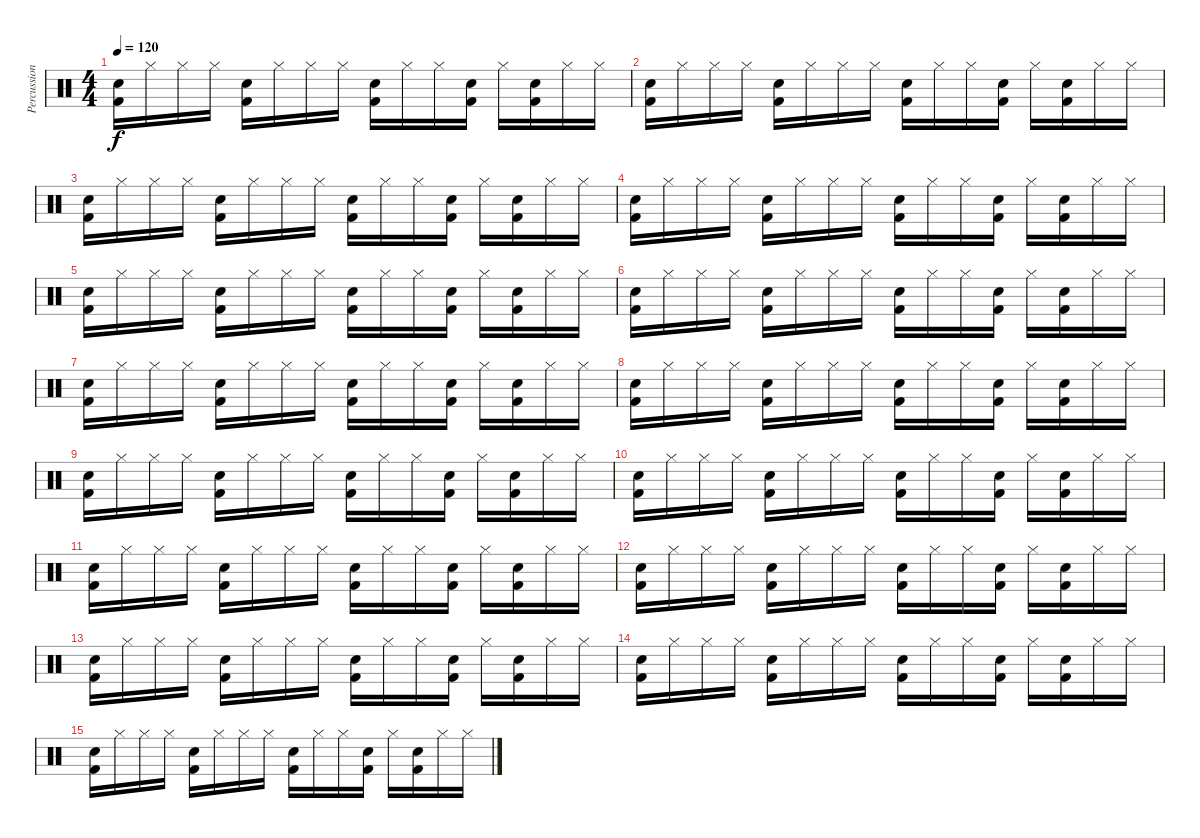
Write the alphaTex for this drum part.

\track ("Percussion" "Percussion") {instrument percussion}
\staff {score}
\articulation defaults
\ts (4 4)
\tempo 120
\clef neutral
\ks c
("Electric Snare (hit)" "Kick (hit) 2").16{dy f} "Hi-Hat (closed)".16 "Hi-Hat (closed)".16 "Hi-Hat (closed)".16 ("Electric Snare (hit)" "Kick (hit) 2").16 "Hi-Hat (closed)".16 "Hi-Hat (closed)".16 "Hi-Hat (closed)".16 ("Electric Snare (hit)" "Kick (hit) 2").16 "Hi-Hat (closed)".16 "Hi-Hat (closed)".16 ("Electric Snare (hit)" "Kick (hit) 2").16 "Hi-Hat (closed)".16 ("Electric Snare (hit)" "Kick (hit) 2").16 "Hi-Hat (closed)".16 "Hi-Hat (closed)".16 |
("Electric Snare (hit)" "Kick (hit) 2").16 "Hi-Hat (closed)".16 "Hi-Hat (closed)".16 "Hi-Hat (closed)".16 ("Electric Snare (hit)" "Kick (hit) 2").16 "Hi-Hat (closed)".16 "Hi-Hat (closed)".16 "Hi-Hat (closed)".16 ("Electric Snare (hit)" "Kick (hit) 2").16 "Hi-Hat (closed)".16 "Hi-Hat (closed)".16 ("Electric Snare (hit)" "Kick (hit) 2").16 "Hi-Hat (closed)".16 ("Electric Snare (hit)" "Kick (hit) 2").16 "Hi-Hat (closed)".16 "Hi-Hat (closed)".16 |
("Electric Snare (hit)" "Kick (hit) 2").16 "Hi-Hat (closed)".16 "Hi-Hat (closed)".16 "Hi-Hat (closed)".16 ("Electric Snare (hit)" "Kick (hit) 2").16 "Hi-Hat (closed)".16 "Hi-Hat (closed)".16 "Hi-Hat (closed)".16 ("Electric Snare (hit)" "Kick (hit) 2").16 "Hi-Hat (closed)".16 "Hi-Hat (closed)".16 ("Electric Snare (hit)" "Kick (hit) 2").16 "Hi-Hat (closed)".16 ("Electric Snare (hit)" "Kick (hit) 2").16 "Hi-Hat (closed)".16 "Hi-Hat (closed)".16 |
("Electric Snare (hit)" "Kick (hit) 2").16 "Hi-Hat (closed)".16 "Hi-Hat (closed)".16 "Hi-Hat (closed)".16 ("Electric Snare (hit)" "Kick (hit) 2").16 "Hi-Hat (closed)".16 "Hi-Hat (closed)".16 "Hi-Hat (closed)".16 ("Electric Snare (hit)" "Kick (hit) 2").16 "Hi-Hat (closed)".16 "Hi-Hat (closed)".16 ("Electric Snare (hit)" "Kick (hit) 2").16 "Hi-Hat (closed)".16 ("Electric Snare (hit)" "Kick (hit) 2").16 "Hi-Hat (closed)".16 "Hi-Hat (closed)".16 |
("Electric Snare (hit)" "Kick (hit) 2").16 "Hi-Hat (closed)".16 "Hi-Hat (closed)".16 "Hi-Hat (closed)".16 ("Electric Snare (hit)" "Kick (hit) 2").16 "Hi-Hat (closed)".16 "Hi-Hat (closed)".16 "Hi-Hat (closed)".16 ("Electric Snare (hit)" "Kick (hit) 2").16 "Hi-Hat (closed)".16 "Hi-Hat (closed)".16 ("Electric Snare (hit)" "Kick (hit) 2").16 "Hi-Hat (closed)".16 ("Electric Snare (hit)" "Kick (hit) 2").16 "Hi-Hat (closed)".16 "Hi-Hat (closed)".16 |
("Electric Snare (hit)" "Kick (hit) 2").16 "Hi-Hat (closed)".16 "Hi-Hat (closed)".16 "Hi-Hat (closed)".16 ("Electric Snare (hit)" "Kick (hit) 2").16 "Hi-Hat (closed)".16 "Hi-Hat (closed)".16 "Hi-Hat (closed)".16 ("Electric Snare (hit)" "Kick (hit) 2").16 "Hi-Hat (closed)".16 "Hi-Hat (closed)".16 ("Electric Snare (hit)" "Kick (hit) 2").16 "Hi-Hat (closed)".16 ("Electric Snare (hit)" "Kick (hit) 2").16 "Hi-Hat (closed)".16 "Hi-Hat (closed)".16 |
("Electric Snare (hit)" "Kick (hit) 2").16 "Hi-Hat (closed)".16 "Hi-Hat (closed)".16 "Hi-Hat (closed)".16 ("Electric Snare (hit)" "Kick (hit) 2").16 "Hi-Hat (closed)".16 "Hi-Hat (closed)".16 "Hi-Hat (closed)".16 ("Electric Snare (hit)" "Kick (hit) 2").16 "Hi-Hat (closed)".16 "Hi-Hat (closed)".16 ("Electric Snare (hit)" "Kick (hit) 2").16 "Hi-Hat (closed)".16 ("Electric Snare (hit)" "Kick (hit) 2").16 "Hi-Hat (closed)".16 "Hi-Hat (closed)".16 |
("Electric Snare (hit)" "Kick (hit) 2").16 "Hi-Hat (closed)".16 "Hi-Hat (closed)".16 "Hi-Hat (closed)".16 ("Electric Snare (hit)" "Kick (hit) 2").16 "Hi-Hat (closed)".16 "Hi-Hat (closed)".16 "Hi-Hat (closed)".16 ("Electric Snare (hit)" "Kick (hit) 2").16 "Hi-Hat (closed)".16 "Hi-Hat (closed)".16 ("Electric Snare (hit)" "Kick (hit) 2").16 "Hi-Hat (closed)".16 ("Electric Snare (hit)" "Kick (hit) 2").16 "Hi-Hat (closed)".16 "Hi-Hat (closed)".16 |
("Electric Snare (hit)" "Kick (hit) 2").16 "Hi-Hat (closed)".16 "Hi-Hat (closed)".16 "Hi-Hat (closed)".16 ("Electric Snare (hit)" "Kick (hit) 2").16 "Hi-Hat (closed)".16 "Hi-Hat (closed)".16 "Hi-Hat (closed)".16 ("Electric Snare (hit)" "Kick (hit) 2").16 "Hi-Hat (closed)".16 "Hi-Hat (closed)".16 ("Electric Snare (hit)" "Kick (hit) 2").16 "Hi-Hat (closed)".16 ("Electric Snare (hit)" "Kick (hit) 2").16 "Hi-Hat (closed)".16 "Hi-Hat (closed)".16 |
("Electric Snare (hit)" "Kick (hit) 2").16 "Hi-Hat (closed)".16 "Hi-Hat (closed)".16 "Hi-Hat (closed)".16 ("Electric Snare (hit)" "Kick (hit) 2").16 "Hi-Hat (closed)".16 "Hi-Hat (closed)".16 "Hi-Hat (closed)".16 ("Electric Snare (hit)" "Kick (hit) 2").16 "Hi-Hat (closed)".16 "Hi-Hat (closed)".16 ("Electric Snare (hit)" "Kick (hit) 2").16 "Hi-Hat (closed)".16 ("Electric Snare (hit)" "Kick (hit) 2").16 "Hi-Hat (closed)".16 "Hi-Hat (closed)".16 |
("Electric Snare (hit)" "Kick (hit) 2").16 "Hi-Hat (closed)".16 "Hi-Hat (closed)".16 "Hi-Hat (closed)".16 ("Electric Snare (hit)" "Kick (hit) 2").16 "Hi-Hat (closed)".16 "Hi-Hat (closed)".16 "Hi-Hat (closed)".16 ("Electric Snare (hit)" "Kick (hit) 2").16 "Hi-Hat (closed)".16 "Hi-Hat (closed)".16 ("Electric Snare (hit)" "Kick (hit) 2").16 "Hi-Hat (closed)".16 ("Electric Snare (hit)" "Kick (hit) 2").16 "Hi-Hat (closed)".16 "Hi-Hat (closed)".16 |
("Electric Snare (hit)" "Kick (hit) 2").16 "Hi-Hat (closed)".16 "Hi-Hat (closed)".16 "Hi-Hat (closed)".16 ("Electric Snare (hit)" "Kick (hit) 2").16 "Hi-Hat (closed)".16 "Hi-Hat (closed)".16 "Hi-Hat (closed)".16 ("Electric Snare (hit)" "Kick (hit) 2").16 "Hi-Hat (closed)".16 "Hi-Hat (closed)".16 ("Electric Snare (hit)" "Kick (hit) 2").16 "Hi-Hat (closed)".16 ("Electric Snare (hit)" "Kick (hit) 2").16 "Hi-Hat (closed)".16 "Hi-Hat (closed)".16 |
("Electric Snare (hit)" "Kick (hit) 2").16 "Hi-Hat (closed)".16 "Hi-Hat (closed)".16 "Hi-Hat (closed)".16 ("Electric Snare (hit)" "Kick (hit) 2").16 "Hi-Hat (closed)".16 "Hi-Hat (closed)".16 "Hi-Hat (closed)".16 ("Electric Snare (hit)" "Kick (hit) 2").16 "Hi-Hat (closed)".16 "Hi-Hat (closed)".16 ("Electric Snare (hit)" "Kick (hit) 2").16 "Hi-Hat (closed)".16 ("Electric Snare (hit)" "Kick (hit) 2").16 "Hi-Hat (closed)".16 "Hi-Hat (closed)".16 |
("Electric Snare (hit)" "Kick (hit) 2").16 "Hi-Hat (closed)".16 "Hi-Hat (closed)".16 "Hi-Hat (closed)".16 ("Electric Snare (hit)" "Kick (hit) 2").16 "Hi-Hat (closed)".16 "Hi-Hat (closed)".16 "Hi-Hat (closed)".16 ("Electric Snare (hit)" "Kick (hit) 2").16 "Hi-Hat (closed)".16 "Hi-Hat (closed)".16 ("Electric Snare (hit)" "Kick (hit) 2").16 "Hi-Hat (closed)".16 ("Electric Snare (hit)" "Kick (hit) 2").16 "Hi-Hat (closed)".16 "Hi-Hat (closed)".16 |
("Electric Snare (hit)" "Kick (hit) 2").16 "Hi-Hat (closed)".16 "Hi-Hat (closed)".16 "Hi-Hat (closed)".16 ("Electric Snare (hit)" "Kick (hit) 2").16 "Hi-Hat (closed)".16 "Hi-Hat (closed)".16 "Hi-Hat (closed)".16 ("Electric Snare (hit)" "Kick (hit) 2").16 "Hi-Hat (closed)".16 "Hi-Hat (closed)".16 ("Electric Snare (hit)" "Kick (hit) 2").16 "Hi-Hat (closed)".16 ("Electric Snare (hit)" "Kick (hit) 2").16 "Hi-Hat (closed)".16 "Hi-Hat (closed)".16
